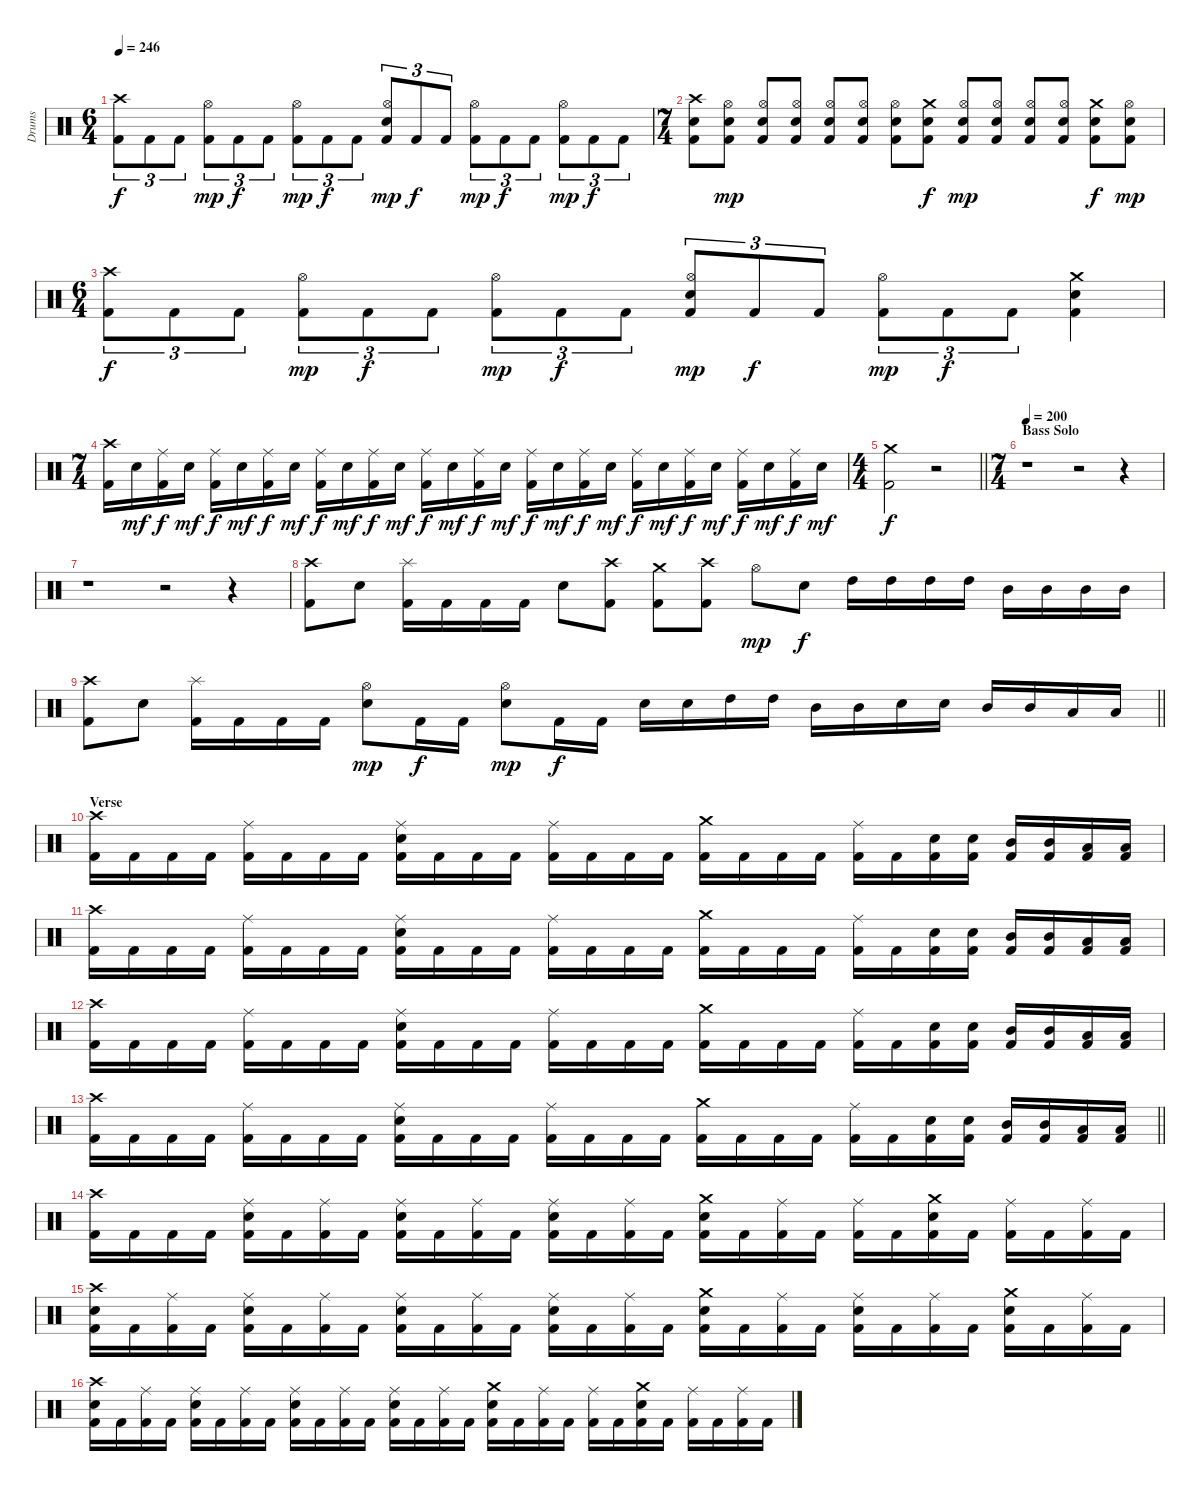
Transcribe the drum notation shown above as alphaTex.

\track ("Drums" "Drums") {instrument percussion}
\staff {score}
\articulation defaults
\ts (6 4)
\tempo 246
\clef neutral
\ks c
("Crash high (hit)" "Kick (hit) 2").8{tu (3 2) dy f} "Kick (hit) 2".8{tu (3 2)} "Kick (hit) 2".8{tu (3 2)} ("Hi-Hat (open)" "Kick (hit) 2").8{tu (3 2) dy mp} "Kick (hit) 2".8{tu (3 2) dy f} "Kick (hit) 2".8{tu (3 2)} ("Hi-Hat (open)" "Kick (hit) 2").8{tu (3 2) dy mp} "Kick (hit) 2".8{tu (3 2) dy f} "Kick (hit) 2".8{tu (3 2)} ("Hi-Hat (open)" "Snare (hit) 2" "Kick (hit) 2").8{tu (3 2) dy mp} "Kick (hit) 2".8{tu (3 2) dy f} "Kick (hit) 2".8{tu (3 2)} ("Hi-Hat (open)" "Kick (hit) 2").8{tu (3 2) dy mp} "Kick (hit) 2".8{tu (3 2) dy f} "Kick (hit) 2".8{tu (3 2)} ("Hi-Hat (open)" "Kick (hit) 2").8{tu (3 2) dy mp} "Kick (hit) 2".8{tu (3 2) dy f} "Kick (hit) 2".8{tu (3 2)} |
\ts (7 4)
("Crash high (hit)" "Snare (hit) 2" "Kick (hit) 2").8 ("Hi-Hat (open)" "Snare (hit) 2" "Kick (hit) 2").8{dy mp} ("Hi-Hat (open)" "Snare (hit) 2" "Kick (hit) 2").8 ("Hi-Hat (open)" "Snare (hit) 2" "Kick (hit) 2").8 ("Hi-Hat (open)" "Snare (hit) 2" "Kick (hit) 2").8 ("Hi-Hat (open)" "Snare (hit) 2" "Kick (hit) 2").8 ("Hi-Hat (open)" "Snare (hit) 2" "Kick (hit) 2").8 ("Crash medium (hit)" "Snare (hit) 2" "Kick (hit) 2").8{dy f} ("Hi-Hat (open)" "Snare (hit) 2" "Kick (hit) 2").8{dy mp} ("Hi-Hat (open)" "Snare (hit) 2" "Kick (hit) 2").8 ("Hi-Hat (open)" "Snare (hit) 2" "Kick (hit) 2").8 ("Hi-Hat (open)" "Snare (hit) 2" "Kick (hit) 2").8 ("Crash medium (hit)" "Snare (hit) 2" "Kick (hit) 2").8{dy f} ("Hi-Hat (open)" "Snare (hit) 2" "Kick (hit) 2").8{dy mp} |
\ts (6 4)
("Crash high (hit)" "Kick (hit) 2").8{tu (3 2) dy f} "Kick (hit) 2".8{tu (3 2)} "Kick (hit) 2".8{tu (3 2)} ("Hi-Hat (open)" "Kick (hit) 2").8{tu (3 2) dy mp} "Kick (hit) 2".8{tu (3 2) dy f} "Kick (hit) 2".8{tu (3 2)} ("Hi-Hat (open)" "Kick (hit) 2").8{tu (3 2) dy mp} "Kick (hit) 2".8{tu (3 2) dy f} "Kick (hit) 2".8{tu (3 2)} ("Hi-Hat (open)" "Snare (hit) 2" "Kick (hit) 2").8{tu (3 2) dy mp} "Kick (hit) 2".8{tu (3 2) dy f} "Kick (hit) 2".8{tu (3 2)} ("Hi-Hat (open)" "Kick (hit) 2").8{tu (3 2) dy mp} "Kick (hit) 2".8{tu (3 2) dy f} "Kick (hit) 2".8{tu (3 2)} ("Crash medium (hit)" "Snare (hit) 2" "Kick (hit) 2").4 |
\ts (7 4)
("Crash high (hit)" "Kick (hit) 2").16 "Snare (hit) 2".16{dy mf} ("Ride (middle)" "Kick (hit) 2").16{dy f} "Snare (hit) 2".16{dy mf} ("Ride (middle)" "Kick (hit) 2").16{dy f} "Snare (hit) 2".16{dy mf} ("Ride (middle)" "Kick (hit) 2").16{dy f} "Snare (hit) 2".16{dy mf} ("Ride (middle)" "Kick (hit) 2").16{dy f} "Snare (hit) 2".16{dy mf} ("Ride (middle)" "Kick (hit) 2").16{dy f} "Snare (hit) 2".16{dy mf} ("Ride (middle)" "Kick (hit) 2").16{dy f} "Snare (hit) 2".16{dy mf} ("Ride (middle)" "Kick (hit) 2").16{dy f} "Snare (hit) 2".16{dy mf} ("Ride (middle)" "Kick (hit) 2").16{dy f} "Snare (hit) 2".16{dy mf} ("Ride (middle)" "Kick (hit) 2").16{dy f} "Snare (hit) 2".16{dy mf} ("Ride (middle)" "Kick (hit) 2").16{dy f} "Snare (hit) 2".16{dy mf} ("Ride (middle)" "Kick (hit) 2").16{dy f} "Snare (hit) 2".16{dy mf} ("Ride (middle)" "Kick (hit) 2").16{dy f} "Snare (hit) 2".16{dy mf} ("Ride (middle)" "Kick (hit) 2").16{dy f} "Snare (hit) 2".16{dy mf} |
\ts (4 4)
\barLineRight lightlight
("Crash medium (hit)" "Kick (hit) 2").2{dy f} r.2 |
\ts (7 4)
\section ("" "Bass Solo")
\tempo 200
r.1 r.2 r.4 |
r.1 r.2 r.4 |
("Crash high (hit)" "Kick (hit) 2").8 "Snare (hit) 2".8 ("Splash (hit)" "Kick (hit) 2").16 "Kick (hit) 2".16 "Kick (hit) 2".16 "Kick (hit) 2".16 "Snare (hit) 2".8 ("Crash high (hit)" "Kick (hit) 2").8 ("Crash medium (hit)" "Kick (hit) 2").8 ("Crash high (hit)" "Kick (hit) 2").8 "Hi-Hat (open)".8{dy mp} "Snare (hit) 2".8{dy f} "High Tom (hit)".16 "High Tom (hit)".16 "High Tom (hit)".16 "High Tom (hit)".16 "Mid Tom (hit)".16 "Mid Tom (hit)".16 "Mid Tom (hit)".16 "Mid Tom (hit)".16 |
\barLineRight lightlight
("Crash high (hit)" "Kick (hit) 2").8 "Snare (hit) 2".8 ("Splash (hit)" "Kick (hit) 2").16 "Kick (hit) 2".16 "Kick (hit) 2".16 "Kick (hit) 2".16 ("Hi-Hat (open)" "Snare (hit) 2").8{dy mp} "Kick (hit) 2".16{dy f} "Kick (hit) 2".16 ("Hi-Hat (open)" "Snare (hit) 2").8{dy mp} "Kick (hit) 2".16{dy f} "Kick (hit) 2".16 "Snare (hit) 2".16 "Snare (hit) 2".16 "High Tom (hit)".16 "High Tom (hit)".16 "Mid Tom (hit)".16 "Mid Tom (hit)".16 "Snare (hit) 2".16 "Snare (hit) 2".16 "Mid Tom (hit)".16 "Mid Tom (hit)".16 "Low Tom (hit)".16 "Low Tom (hit)".16 |
\section ("" "Verse")
("Crash high (hit)" "Kick (hit) 2").16 "Kick (hit) 2".16 "Kick (hit) 2".16 "Kick (hit) 2".16 ("Ride (middle)" "Kick (hit) 2").16 "Kick (hit) 2".16 "Kick (hit) 2".16 "Kick (hit) 2".16 ("Ride (middle)" "Snare (hit) 2" "Kick (hit) 2").16 "Kick (hit) 2".16 "Kick (hit) 2".16 "Kick (hit) 2".16 ("Ride (middle)" "Kick (hit) 2").16 "Kick (hit) 2".16 "Kick (hit) 2".16 "Kick (hit) 2".16 ("Crash medium (hit)" "Kick (hit) 2").16 "Kick (hit) 2".16 "Kick (hit) 2".16 "Kick (hit) 2".16 ("Ride (middle)" "Kick (hit) 2").16 "Kick (hit) 2".16 ("Snare (hit) 2" "Kick (hit) 2").16 ("Snare (hit) 2" "Kick (hit) 2").16 ("Mid Tom (hit)" "Kick (hit) 2").16 ("Mid Tom (hit)" "Kick (hit) 2").16 ("Low Tom (hit)" "Kick (hit) 2").16 ("Low Tom (hit)" "Kick (hit) 2").16 |
("Crash high (hit)" "Kick (hit) 2").16 "Kick (hit) 2".16 "Kick (hit) 2".16 "Kick (hit) 2".16 ("Ride (middle)" "Kick (hit) 2").16 "Kick (hit) 2".16 "Kick (hit) 2".16 "Kick (hit) 2".16 ("Ride (middle)" "Snare (hit) 2" "Kick (hit) 2").16 "Kick (hit) 2".16 "Kick (hit) 2".16 "Kick (hit) 2".16 ("Ride (middle)" "Kick (hit) 2").16 "Kick (hit) 2".16 "Kick (hit) 2".16 "Kick (hit) 2".16 ("Crash medium (hit)" "Kick (hit) 2").16 "Kick (hit) 2".16 "Kick (hit) 2".16 "Kick (hit) 2".16 ("Ride (middle)" "Kick (hit) 2").16 "Kick (hit) 2".16 ("Snare (hit) 2" "Kick (hit) 2").16 ("Snare (hit) 2" "Kick (hit) 2").16 ("Mid Tom (hit)" "Kick (hit) 2").16 ("Mid Tom (hit)" "Kick (hit) 2").16 ("Low Tom (hit)" "Kick (hit) 2").16 ("Low Tom (hit)" "Kick (hit) 2").16 |
("Crash high (hit)" "Kick (hit) 2").16 "Kick (hit) 2".16 "Kick (hit) 2".16 "Kick (hit) 2".16 ("Ride (middle)" "Kick (hit) 2").16 "Kick (hit) 2".16 "Kick (hit) 2".16 "Kick (hit) 2".16 ("Ride (middle)" "Snare (hit) 2" "Kick (hit) 2").16 "Kick (hit) 2".16 "Kick (hit) 2".16 "Kick (hit) 2".16 ("Ride (middle)" "Kick (hit) 2").16 "Kick (hit) 2".16 "Kick (hit) 2".16 "Kick (hit) 2".16 ("Crash medium (hit)" "Kick (hit) 2").16 "Kick (hit) 2".16 "Kick (hit) 2".16 "Kick (hit) 2".16 ("Ride (middle)" "Kick (hit) 2").16 "Kick (hit) 2".16 ("Snare (hit) 2" "Kick (hit) 2").16 ("Snare (hit) 2" "Kick (hit) 2").16 ("Mid Tom (hit)" "Kick (hit) 2").16 ("Mid Tom (hit)" "Kick (hit) 2").16 ("Low Tom (hit)" "Kick (hit) 2").16 ("Low Tom (hit)" "Kick (hit) 2").16 |
\barLineRight lightlight
("Crash high (hit)" "Kick (hit) 2").16 "Kick (hit) 2".16 "Kick (hit) 2".16 "Kick (hit) 2".16 ("Ride (middle)" "Kick (hit) 2").16 "Kick (hit) 2".16 "Kick (hit) 2".16 "Kick (hit) 2".16 ("Ride (middle)" "Snare (hit) 2" "Kick (hit) 2").16 "Kick (hit) 2".16 "Kick (hit) 2".16 "Kick (hit) 2".16 ("Ride (middle)" "Kick (hit) 2").16 "Kick (hit) 2".16 "Kick (hit) 2".16 "Kick (hit) 2".16 ("Crash medium (hit)" "Kick (hit) 2").16 "Kick (hit) 2".16 "Kick (hit) 2".16 "Kick (hit) 2".16 ("Ride (middle)" "Kick (hit) 2").16 "Kick (hit) 2".16 ("Snare (hit) 2" "Kick (hit) 2").16 ("Snare (hit) 2" "Kick (hit) 2").16 ("Mid Tom (hit)" "Kick (hit) 2").16 ("Mid Tom (hit)" "Kick (hit) 2").16 ("Low Tom (hit)" "Kick (hit) 2").16 ("Low Tom (hit)" "Kick (hit) 2").16 |
\section ("" "")
("Crash high (hit)" "Kick (hit) 2").16 "Kick (hit) 2".16 "Kick (hit) 2".16 "Kick (hit) 2".16 ("Ride (middle)" "Snare (hit) 2" "Kick (hit) 2").16 "Kick (hit) 2".16 ("Ride (middle)" "Kick (hit) 2").16 "Kick (hit) 2".16 ("Ride (middle)" "Snare (hit) 2" "Kick (hit) 2").16 "Kick (hit) 2".16 ("Ride (middle)" "Kick (hit) 2").16 "Kick (hit) 2".16 ("Ride (middle)" "Snare (hit) 2" "Kick (hit) 2").16 "Kick (hit) 2".16 ("Ride (middle)" "Kick (hit) 2").16 "Kick (hit) 2".16 ("Crash medium (hit)" "Snare (hit) 2" "Kick (hit) 2").16 "Kick (hit) 2".16 ("Ride (middle)" "Kick (hit) 2").16 "Kick (hit) 2".16 ("Ride (middle)" "Kick (hit) 2").16 "Kick (hit) 2".16 ("Crash medium (hit)" "Snare (hit) 2" "Kick (hit) 2").16 "Kick (hit) 2".16 ("Ride (middle)" "Kick (hit) 2").16 "Kick (hit) 2".16 ("Ride (middle)" "Kick (hit) 2").16 "Kick (hit) 2".16 |
("Crash high (hit)" "Snare (hit) 2" "Kick (hit) 2").16 "Kick (hit) 2".16 ("Ride (middle)" "Kick (hit) 2").16 "Kick (hit) 2".16 ("Ride (middle)" "Snare (hit) 2" "Kick (hit) 2").16 "Kick (hit) 2".16 ("Ride (middle)" "Kick (hit) 2").16 "Kick (hit) 2".16 ("Ride (middle)" "Snare (hit) 2" "Kick (hit) 2").16 "Kick (hit) 2".16 ("Ride (middle)" "Kick (hit) 2").16 "Kick (hit) 2".16 ("Ride (middle)" "Snare (hit) 2" "Kick (hit) 2").16 "Kick (hit) 2".16 ("Ride (middle)" "Kick (hit) 2").16 "Kick (hit) 2".16 ("Crash medium (hit)" "Snare (hit) 2" "Kick (hit) 2").16 "Kick (hit) 2".16 ("Ride (middle)" "Kick (hit) 2").16 "Kick (hit) 2".16 ("Ride (middle)" "Snare (hit) 2" "Kick (hit) 2").16 "Kick (hit) 2".16 ("Ride (middle)" "Kick (hit) 2").16 "Kick (hit) 2".16 ("Crash medium (hit)" "Snare (hit) 2" "Kick (hit) 2").16 "Kick (hit) 2".16 ("Ride (middle)" "Kick (hit) 2").16 "Kick (hit) 2".16 |
("Crash high (hit)" "Snare (hit) 2" "Kick (hit) 2").16 "Kick (hit) 2".16 ("Ride (middle)" "Kick (hit) 2").16 "Kick (hit) 2".16 ("Ride (middle)" "Snare (hit) 2" "Kick (hit) 2").16 "Kick (hit) 2".16 ("Ride (middle)" "Kick (hit) 2").16 "Kick (hit) 2".16 ("Ride (middle)" "Snare (hit) 2" "Kick (hit) 2").16 "Kick (hit) 2".16 ("Ride (middle)" "Kick (hit) 2").16 "Kick (hit) 2".16 ("Ride (middle)" "Snare (hit) 2" "Kick (hit) 2").16 "Kick (hit) 2".16 ("Ride (middle)" "Kick (hit) 2").16 "Kick (hit) 2".16 ("Crash medium (hit)" "Snare (hit) 2" "Kick (hit) 2").16 "Kick (hit) 2".16 ("Ride (middle)" "Kick (hit) 2").16 "Kick (hit) 2".16 ("Ride (middle)" "Kick (hit) 2").16 "Kick (hit) 2".16 ("Crash medium (hit)" "Snare (hit) 2" "Kick (hit) 2").16 "Kick (hit) 2".16 ("Ride (middle)" "Kick (hit) 2").16 "Kick (hit) 2".16 ("Ride (middle)" "Kick (hit) 2").16 "Kick (hit) 2".16
